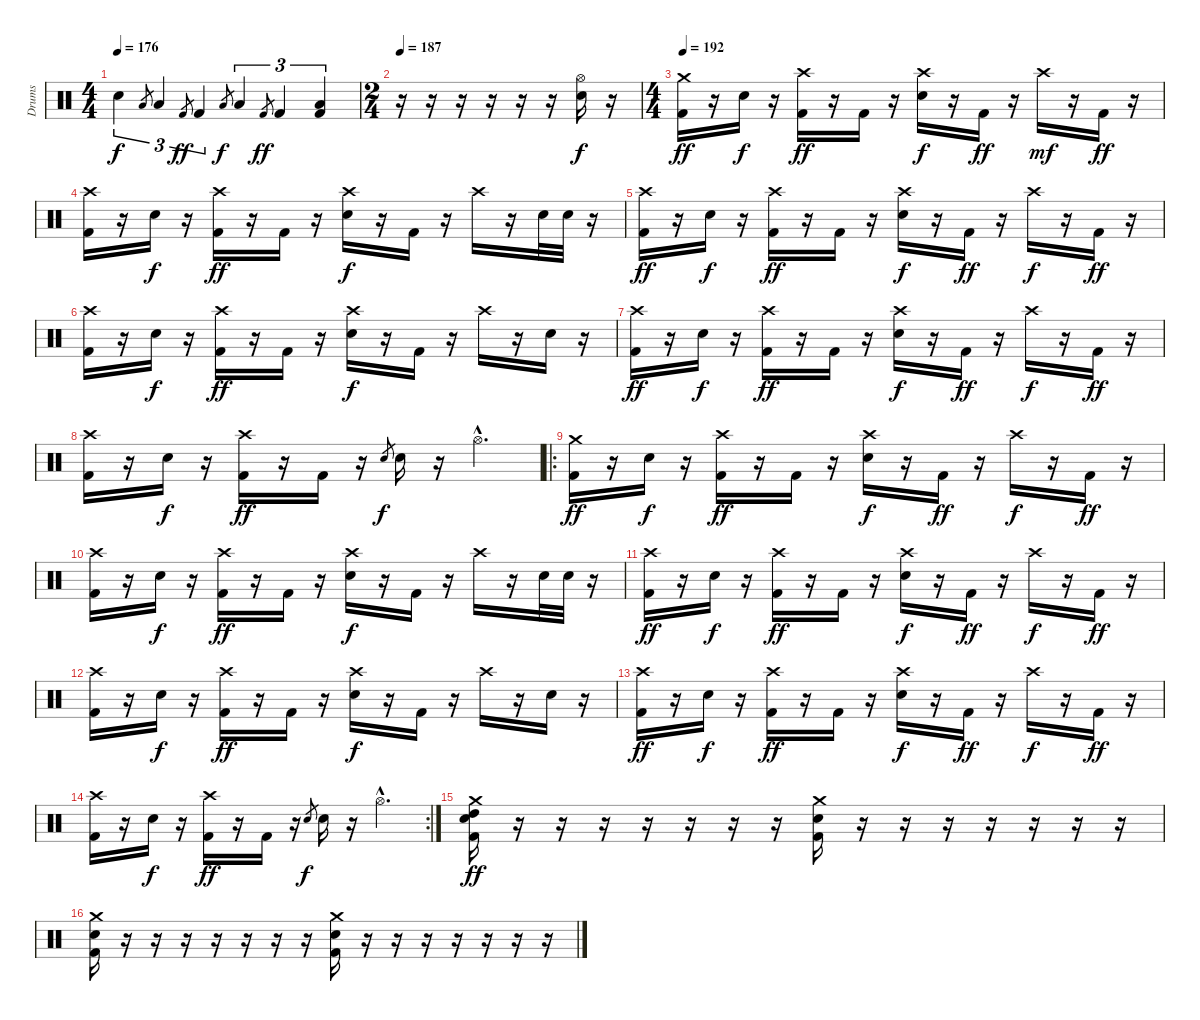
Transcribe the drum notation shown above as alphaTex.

\track ("Drums" "Drums") {instrument percussion}
\staff {score}
\articulation defaults
\ts (4 4)
\tempo 176
\clef neutral
\ks c "Electric Snare (hit)".4{tu (3 2) dy f} "Low Tom (hit)".8{gr} "Low Tom (hit)".4{tu (3 2)} "Kick (hit) 2".8{gr dy ff} "Kick (hit) 2".4{tu (3 2)} "Low Floor Tom (hit)".8{gr dy f} "Low Floor Tom (hit)".4{tu (3 2)} "Kick (hit) 2".8{gr dy ff} "Kick (hit) 2".4{tu (3 2)}
("Low Floor Tom (hit)" "Kick (hit) 2").4{tu (3 2)} |
\ts (2 4)
\tempo 187
r.16 r.16 r.16 r.16 r.16 r.16 ("Hi-Hat (open)" "Electric Snare (hit)").16{dy f} r.16 |
\ts (4 4)
\tempo 192
("Crash medium (hit)" "Kick (hit) 2").16{dy ff} r.16 "Electric Snare (hit)".16{dy f} r.16 ("Crash high (hit)" "Kick (hit) 2").16{dy ff} r.16 "Kick (hit) 2".16 r.16 ("Crash high (hit)" "Electric Snare (hit)").16{dy f} r.16 "Kick (hit) 2".16{dy ff} r.16 "Crash high (hit)".16{dy mf} r.16 "Kick (hit) 2".16{dy ff} r.16 |
("Crash high (hit)" "Kick (hit) 2").16 r.16 "Electric Snare (hit)".16{dy f} r.16 ("Crash high (hit)" "Kick (hit) 2").16{dy ff} r.16 "Kick (hit) 2".16 r.16 ("Crash high (hit)" "Electric Snare (hit)").16{dy f} r.16 "Kick (hit) 2".16 r.16 "Crash high (hit)".16 r.16 "Electric Snare (hit)".32 "Electric Snare (hit)".32 r.16 |
("Crash high (hit)" "Kick (hit) 2").16{dy ff} r.16 "Electric Snare (hit)".16{dy f} r.16 ("Crash high (hit)" "Kick (hit) 2").16{dy ff} r.16 "Kick (hit) 2".16 r.16 ("Crash high (hit)" "Electric Snare (hit)").16{dy f} r.16 "Kick (hit) 2".16{dy ff} r.16 "Crash high (hit)".16{dy f} r.16 "Kick (hit) 2".16{dy ff} r.16 |
("Crash high (hit)" "Kick (hit) 2").16 r.16 "Electric Snare (hit)".16{dy f} r.16 ("Crash high (hit)" "Kick (hit) 2").16{dy ff} r.16 "Kick (hit) 2".16 r.16 ("Crash high (hit)" "Electric Snare (hit)").16{dy f} r.16 "Kick (hit) 2".16 r.16 "Crash high (hit)".16 r.16 "Electric Snare (hit)".16 r.16 |
("Crash high (hit)" "Kick (hit) 2").16{dy ff} r.16 "Electric Snare (hit)".16{dy f} r.16 ("Crash high (hit)" "Kick (hit) 2").16{dy ff} r.16 "Kick (hit) 2".16 r.16 ("Crash high (hit)" "Electric Snare (hit)").16{dy f} r.16 "Kick (hit) 2".16{dy ff} r.16 "Crash high (hit)".16{dy f} r.16 "Kick (hit) 2".16{dy ff} r.16 |
("Crash high (hit)" "Kick (hit) 2").16 r.16 "Electric Snare (hit)".16{dy f} r.16 ("Crash high (hit)" "Kick (hit) 2").16{dy ff} r.16 "Kick (hit) 2".16 r.16 "Electric Snare (hit)".8{gr dy f} "Electric Snare (hit)".16 r.16 "Hi-Hat (open)"{hac}.4{d} |
\ro
("Crash medium (hit)" "Kick (hit) 2").16{dy ff} r.16 "Electric Snare (hit)".16{dy f} r.16 ("Crash high (hit)" "Kick (hit) 2").16{dy ff} r.16 "Kick (hit) 2".16 r.16 ("Crash high (hit)" "Electric Snare (hit)").16{dy f} r.16 "Kick (hit) 2".16{dy ff} r.16 "Crash high (hit)".16{dy f} r.16 "Kick (hit) 2".16{dy ff} r.16 |
("Crash high (hit)" "Kick (hit) 2").16 r.16 "Electric Snare (hit)".16{dy f} r.16 ("Crash high (hit)" "Kick (hit) 2").16{dy ff} r.16 "Kick (hit) 2".16 r.16 ("Crash high (hit)" "Electric Snare (hit)").16{dy f} r.16 "Kick (hit) 2".16 r.16 "Crash high (hit)".16 r.16 "Electric Snare (hit)".32 "Electric Snare (hit)".32 r.16 |
("Crash high (hit)" "Kick (hit) 2").16{dy ff} r.16 "Electric Snare (hit)".16{dy f} r.16 ("Crash high (hit)" "Kick (hit) 2").16{dy ff} r.16 "Kick (hit) 2".16 r.16 ("Crash high (hit)" "Electric Snare (hit)").16{dy f} r.16 "Kick (hit) 2".16{dy ff} r.16 "Crash high (hit)".16{dy f} r.16 "Kick (hit) 2".16{dy ff} r.16 |
("Crash high (hit)" "Kick (hit) 2").16 r.16 "Electric Snare (hit)".16{dy f} r.16 ("Crash high (hit)" "Kick (hit) 2").16{dy ff} r.16 "Kick (hit) 2".16 r.16 ("Crash high (hit)" "Electric Snare (hit)").16{dy f} r.16 "Kick (hit) 2".16 r.16 "Crash high (hit)".16 r.16 "Electric Snare (hit)".16 r.16 |
("Crash high (hit)" "Kick (hit) 2").16{dy ff} r.16 "Electric Snare (hit)".16{dy f} r.16 ("Crash high (hit)" "Kick (hit) 2").16{dy ff} r.16 "Kick (hit) 2".16 r.16 ("Crash high (hit)" "Electric Snare (hit)").16{dy f} r.16 "Kick (hit) 2".16{dy ff} r.16 "Crash high (hit)".16{dy f} r.16 "Kick (hit) 2".16{dy ff} r.16 |
\rc 2
("Crash high (hit)" "Kick (hit) 2").16 r.16 "Electric Snare (hit)".16{dy f} r.16 ("Crash high (hit)" "Kick (hit) 2").16{dy ff} r.16 "Kick (hit) 2".16 r.16 "Electric Snare (hit)".8{gr dy f} "Electric Snare (hit)".16 r.16 "Hi-Hat (open)"{hac}.4{d} |
("Crash medium (hit)" "High Tom (hit)" "Electric Snare (hit)" "Kick (hit) 2").16{dy ff} r.16 r.16 r.16 r.16 r.16 r.16 r.16 ("Crash medium (hit)" "Electric Snare (hit)" "Kick (hit) 2").16 r.16 r.16 r.16 r.16 r.16 r.16 r.16 |
("Crash medium (hit)" "Electric Snare (hit)" "Kick (hit) 2").16 r.16 r.16 r.16 r.16 r.16 r.16 r.16 ("Crash medium (hit)" "Electric Snare (hit)" "Kick (hit) 2").16 r.16 r.16 r.16 r.16 r.16 r.16 r.16
